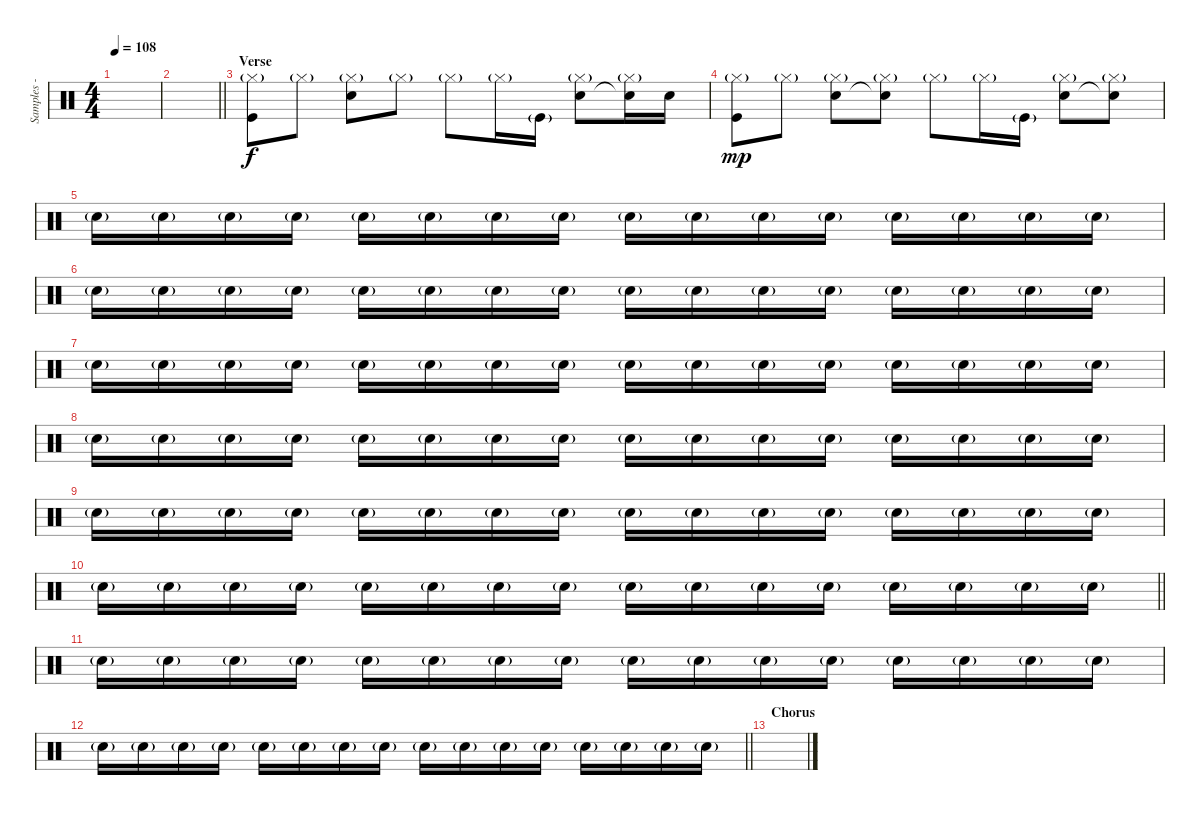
\track ("Samples - Joe Hahn" "Samples - ") {instrument percussion}
\staff {score}
\articulation defaults
\ts (4 4)
\tempo 108
\clef neutral
\ks c
|
\barLineRight lightlight
|
\section ("" "Verse")
("Hi-Hat (closed)"{g} "Kick (hit)").8{volume 14} "Hi-Hat (closed)"{g}.8 ("Hi-Hat (closed)"{g} "Snare (hit) 2").8 "Hi-Hat (closed)"{g}.8 "Hi-Hat (closed)"{g}.8 "Hi-Hat (closed)"{g}.16 "Kick (hit)"{g}.16 ("Hi-Hat (closed)"{g} "Snare (hit) 2").8 ("Hi-Hat (closed)"{g} "Snare (hit) 2"{t}).16 "Snare (hit) 2".16{dy f} |
("Hi-Hat (closed)"{g} "Kick (hit)").8{dy mp} "Hi-Hat (closed)"{g}.8 ("Hi-Hat (closed)"{g} "Snare (hit) 2").8 ("Hi-Hat (closed)"{g} "Snare (hit)"{t}).8 "Hi-Hat (closed)"{g}.8 "Hi-Hat (closed)"{g}.16 "Kick (hit)"{g}.16 ("Hi-Hat (closed)"{g} "Snare (hit) 2").8 ("Hi-Hat (closed)"{g} "Snare (hit)"{t}).8 |
"Electric Snare (hit)"{g}.16 "Electric Snare (hit)"{g}.16 "Electric Snare (hit)"{g}.16 "Electric Snare (hit)"{g}.16 "Electric Snare (hit)"{g}.16 "Electric Snare (hit)"{g}.16 "Electric Snare (hit)"{g}.16 "Electric Snare (hit)"{g}.16 "Electric Snare (hit)"{g}.16 "Electric Snare (hit)"{g}.16 "Electric Snare (hit)"{g}.16 "Electric Snare (hit)"{g}.16 "Electric Snare (hit)"{g}.16 "Electric Snare (hit)"{g}.16 "Electric Snare (hit)"{g}.16 "Electric Snare (hit)"{g}.16 |
"Electric Snare (hit)"{g}.16 "Electric Snare (hit)"{g}.16 "Electric Snare (hit)"{g}.16 "Electric Snare (hit)"{g}.16 "Electric Snare (hit)"{g}.16 "Electric Snare (hit)"{g}.16 "Electric Snare (hit)"{g}.16 "Electric Snare (hit)"{g}.16 "Electric Snare (hit)"{g}.16 "Electric Snare (hit)"{g}.16 "Electric Snare (hit)"{g}.16 "Electric Snare (hit)"{g}.16 "Electric Snare (hit)"{g}.16 "Electric Snare (hit)"{g}.16 "Electric Snare (hit)"{g}.16 "Electric Snare (hit)"{g}.16 |
"Electric Snare (hit)"{g}.16 "Electric Snare (hit)"{g}.16 "Electric Snare (hit)"{g}.16 "Electric Snare (hit)"{g}.16 "Electric Snare (hit)"{g}.16 "Electric Snare (hit)"{g}.16 "Electric Snare (hit)"{g}.16 "Electric Snare (hit)"{g}.16 "Electric Snare (hit)"{g}.16 "Electric Snare (hit)"{g}.16 "Electric Snare (hit)"{g}.16 "Electric Snare (hit)"{g}.16 "Electric Snare (hit)"{g}.16 "Electric Snare (hit)"{g}.16 "Electric Snare (hit)"{g}.16 "Electric Snare (hit)"{g}.16 |
"Electric Snare (hit)"{g}.16 "Electric Snare (hit)"{g}.16 "Electric Snare (hit)"{g}.16 "Electric Snare (hit)"{g}.16 "Electric Snare (hit)"{g}.16 "Electric Snare (hit)"{g}.16 "Electric Snare (hit)"{g}.16 "Electric Snare (hit)"{g}.16 "Electric Snare (hit)"{g}.16 "Electric Snare (hit)"{g}.16 "Electric Snare (hit)"{g}.16 "Electric Snare (hit)"{g}.16 "Electric Snare (hit)"{g}.16 "Electric Snare (hit)"{g}.16 "Electric Snare (hit)"{g}.16 "Electric Snare (hit)"{g}.16 |
"Electric Snare (hit)"{g}.16 "Electric Snare (hit)"{g}.16 "Electric Snare (hit)"{g}.16 "Electric Snare (hit)"{g}.16 "Electric Snare (hit)"{g}.16 "Electric Snare (hit)"{g}.16 "Electric Snare (hit)"{g}.16 "Electric Snare (hit)"{g}.16 "Electric Snare (hit)"{g}.16 "Electric Snare (hit)"{g}.16 "Electric Snare (hit)"{g}.16 "Electric Snare (hit)"{g}.16 "Electric Snare (hit)"{g}.16 "Electric Snare (hit)"{g}.16 "Electric Snare (hit)"{g}.16 "Electric Snare (hit)"{g}.16 |
\barLineRight lightlight "Electric Snare (hit)"{g}.16 "Electric Snare (hit)"{g}.16 "Electric Snare (hit)"{g}.16 "Electric Snare (hit)"{g}.16 "Electric Snare (hit)"{g}.16 "Electric Snare (hit)"{g}.16 "Electric Snare (hit)"{g}.16 "Electric Snare (hit)"{g}.16 "Electric Snare (hit)"{g}.16 "Electric Snare (hit)"{g}.16 "Electric Snare (hit)"{g}.16 "Electric Snare (hit)"{g}.16 "Electric Snare (hit)"{g}.16 "Electric Snare (hit)"{g}.16 "Electric Snare (hit)"{g}.16 "Electric Snare (hit)"{g}.16
|
"Electric Snare (hit)"{g}.16 "Electric Snare (hit)"{g}.16 "Electric Snare (hit)"{g}.16 "Electric Snare (hit)"{g}.16 "Electric Snare (hit)"{g}.16 "Electric Snare (hit)"{g}.16 "Electric Snare (hit)"{g}.16 "Electric Snare (hit)"{g}.16 "Electric Snare (hit)"{g}.16 "Electric Snare (hit)"{g}.16 "Electric Snare (hit)"{g}.16 "Electric Snare (hit)"{g}.16 "Electric Snare (hit)"{g}.16 "Electric Snare (hit)"{g}.16 "Electric Snare (hit)"{g}.16 "Electric Snare (hit)"{g}.16 |
\barLineRight lightlight "Electric Snare (hit)"{g}.16 "Electric Snare (hit)"{g}.16 "Electric Snare (hit)"{g}.16 "Electric Snare (hit)"{g}.16 "Electric Snare (hit)"{g}.16 "Electric Snare (hit)"{g}.16 "Electric Snare (hit)"{g}.16 "Electric Snare (hit)"{g}.16 "Electric Snare (hit)"{g}.16 "Electric Snare (hit)"{g}.16 "Electric Snare (hit)"{g}.16 "Electric Snare (hit)"{g}.16 "Electric Snare (hit)"{g}.16 "Electric Snare (hit)"{g}.16 "Electric Snare (hit)"{g}.16 "Electric Snare (hit)"{g}.16
|
\section ("" "Chorus")
